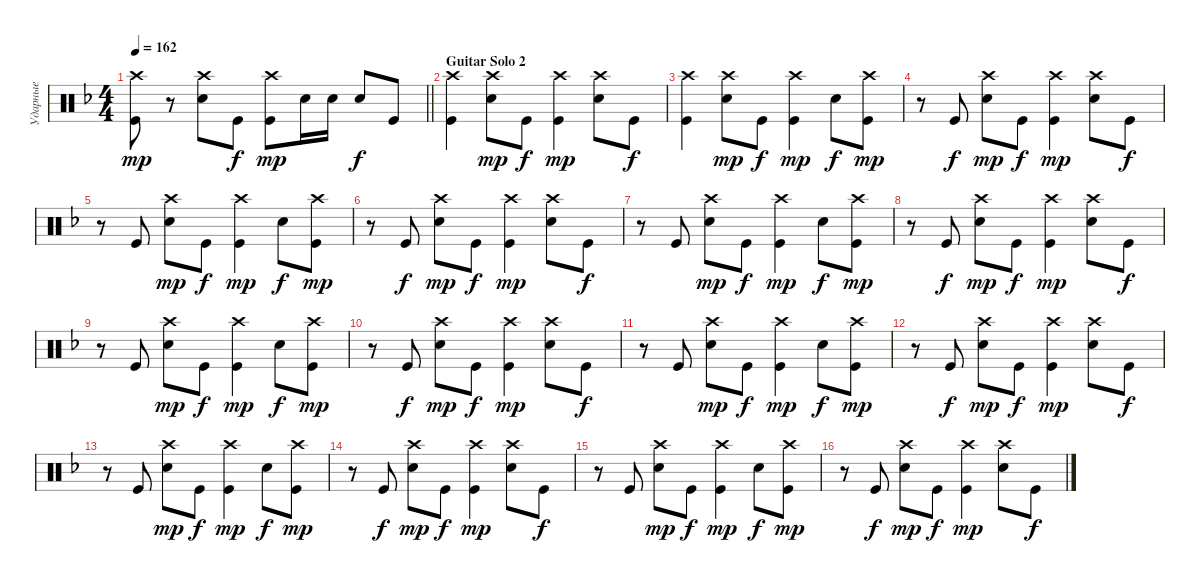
\track ("Ударные" "Ударные") {instrument percussion}
\staff {score}
\articulation defaults
\ts (4 4)
\tempo 162
\clef neutral
\barLineRight lightlight
\ks dminor
("Kick (hit)" "Crash high (hit)").8{dy mp} r.8 ("Snare (hit) 2" "Crash high (hit)").8 "Kick (hit)".8{dy f} ("Crash high (hit)" "Kick (hit)").8{dy mp} "Snare (hit) 2".16 "Snare (hit) 2".16 "Snare (hit) 2".8{dy f} "Kick (hit)".8 |
\section ("" "Guitar Solo 2")
("Kick (hit)" "Crash high (hit)").4 ("Snare (hit) 2" "Crash high (hit)").8{dy mp} "Kick (hit)".8{dy f} ("Kick (hit)" "Crash high (hit)").4{dy mp} ("Snare (hit) 2" "Crash high (hit)").8 "Kick (hit)".8{dy f} |
("Kick (hit)" "Crash high (hit)").4 ("Snare (hit) 2" "Crash high (hit)").8{dy mp} "Kick (hit)".8{dy f} ("Kick (hit)" "Crash high (hit)").4{dy mp} "Snare (hit) 2".8{dy f} ("Kick (hit)" "Crash high (hit)").8{dy mp} |
r.8 "Kick (hit)".8{dy f} ("Snare (hit) 2" "Crash high (hit)").8{dy mp} "Kick (hit)".8{dy f} ("Kick (hit)" "Crash high (hit)").4{dy mp} ("Snare (hit) 2" "Crash high (hit)").8 "Kick (hit)".8{dy f} |
r.8 "Kick (hit)".8 ("Snare (hit) 2" "Crash high (hit)").8{dy mp} "Kick (hit)".8{dy f} ("Kick (hit)" "Crash high (hit)").4{dy mp} "Snare (hit) 2".8{dy f} ("Kick (hit)" "Crash high (hit)").8{dy mp} |
r.8 "Kick (hit)".8{dy f} ("Snare (hit) 2" "Crash high (hit)").8{dy mp} "Kick (hit)".8{dy f} ("Kick (hit)" "Crash high (hit)").4{dy mp} ("Snare (hit) 2" "Crash high (hit)").8 "Kick (hit)".8{dy f} |
r.8 "Kick (hit)".8 ("Snare (hit) 2" "Crash high (hit)").8{dy mp} "Kick (hit)".8{dy f} ("Kick (hit)" "Crash high (hit)").4{dy mp} "Snare (hit) 2".8{dy f} ("Kick (hit)" "Crash high (hit)").8{dy mp} |
r.8 "Kick (hit)".8{dy f} ("Snare (hit) 2" "Crash high (hit)").8{dy mp} "Kick (hit)".8{dy f} ("Kick (hit)" "Crash high (hit)").4{dy mp} ("Snare (hit) 2" "Crash high (hit)").8 "Kick (hit)".8{dy f} |
r.8 "Kick (hit)".8 ("Snare (hit) 2" "Crash high (hit)").8{dy mp} "Kick (hit)".8{dy f} ("Kick (hit)" "Crash high (hit)").4{dy mp} "Snare (hit) 2".8{dy f} ("Kick (hit)" "Crash high (hit)").8{dy mp} |
r.8 "Kick (hit)".8{dy f} ("Snare (hit) 2" "Crash high (hit)").8{dy mp} "Kick (hit)".8{dy f} ("Kick (hit)" "Crash high (hit)").4{dy mp} ("Snare (hit) 2" "Crash high (hit)").8 "Kick (hit)".8{dy f} |
r.8 "Kick (hit)".8 ("Snare (hit) 2" "Crash high (hit)").8{dy mp} "Kick (hit)".8{dy f} ("Kick (hit)" "Crash high (hit)").4{dy mp} "Snare (hit) 2".8{dy f} ("Kick (hit)" "Crash high (hit)").8{dy mp} |
r.8 "Kick (hit)".8{dy f} ("Snare (hit) 2" "Crash high (hit)").8{dy mp} "Kick (hit)".8{dy f} ("Kick (hit)" "Crash high (hit)").4{dy mp} ("Snare (hit) 2" "Crash high (hit)").8 "Kick (hit)".8{dy f} |
r.8 "Kick (hit)".8 ("Snare (hit) 2" "Crash high (hit)").8{dy mp} "Kick (hit)".8{dy f} ("Kick (hit)" "Crash high (hit)").4{dy mp} "Snare (hit) 2".8{dy f} ("Kick (hit)" "Crash high (hit)").8{dy mp} |
r.8 "Kick (hit)".8{dy f} ("Snare (hit) 2" "Crash high (hit)").8{dy mp} "Kick (hit)".8{dy f} ("Kick (hit)" "Crash high (hit)").4{dy mp} ("Snare (hit) 2" "Crash high (hit)").8 "Kick (hit)".8{dy f} |
r.8 "Kick (hit)".8 ("Snare (hit) 2" "Crash high (hit)").8{dy mp} "Kick (hit)".8{dy f} ("Kick (hit)" "Crash high (hit)").4{dy mp} "Snare (hit) 2".8{dy f} ("Kick (hit)" "Crash high (hit)").8{dy mp} |
r.8 "Kick (hit)".8{dy f} ("Snare (hit) 2" "Crash high (hit)").8{dy mp} "Kick (hit)".8{dy f} ("Kick (hit)" "Crash high (hit)").4{dy mp} ("Snare (hit) 2" "Crash high (hit)").8 "Kick (hit)".8{dy f}
